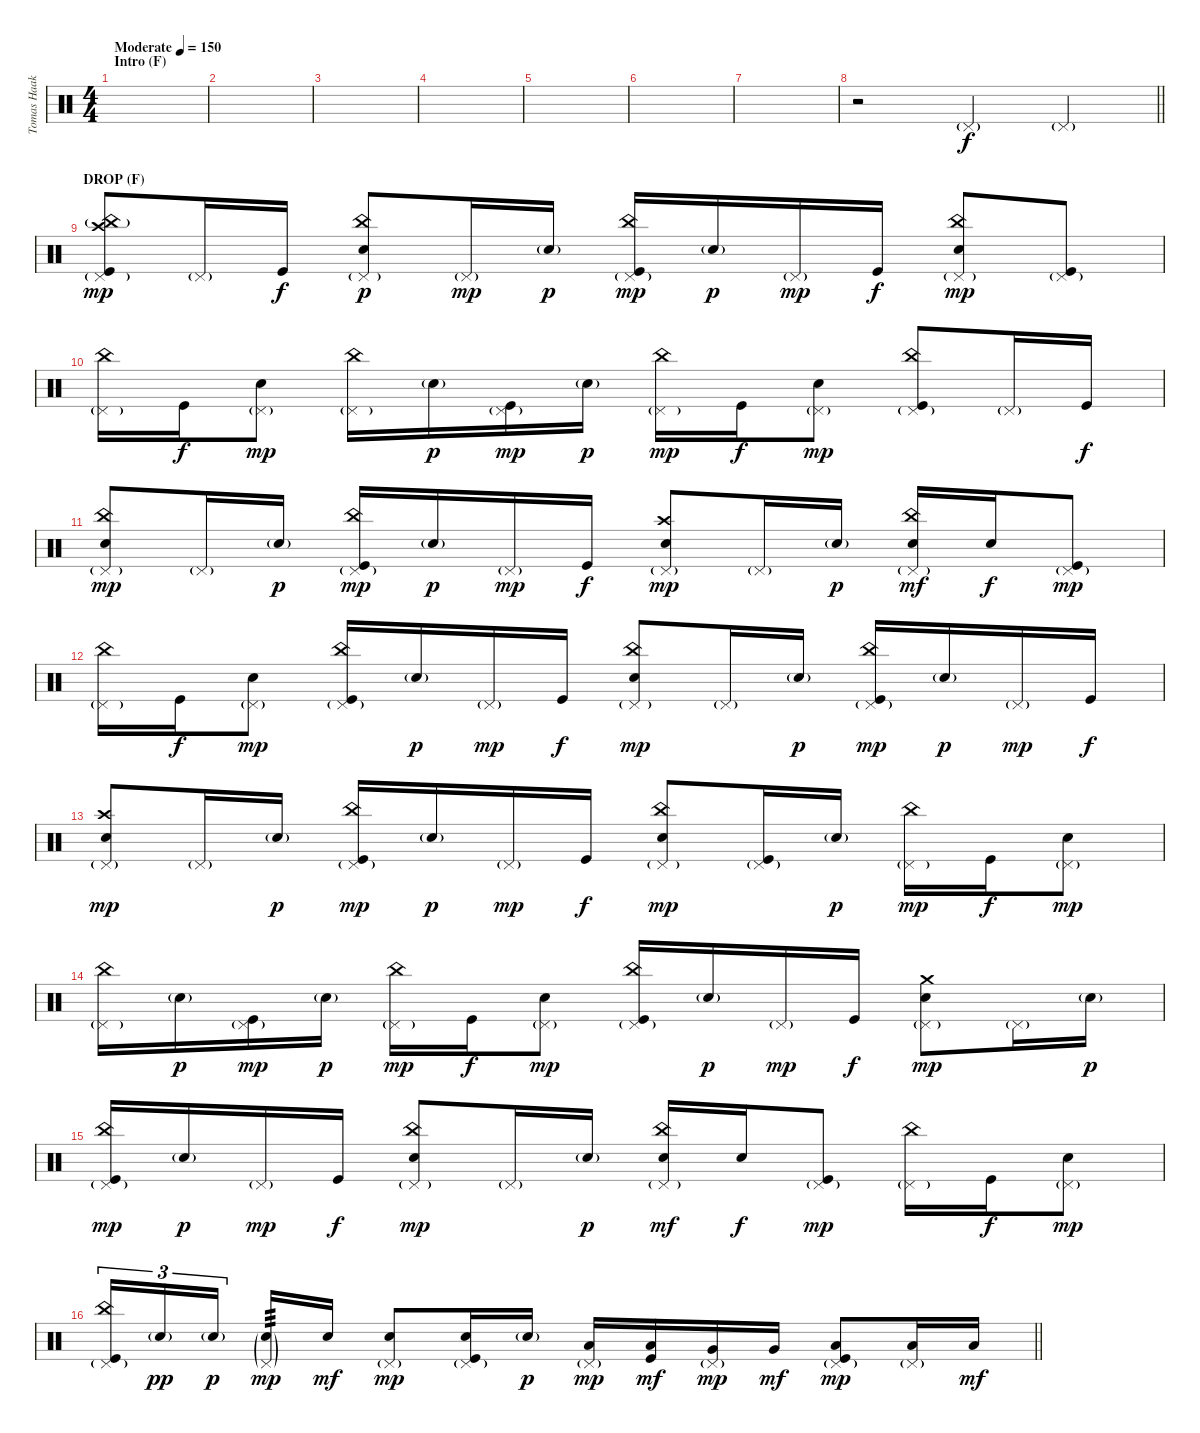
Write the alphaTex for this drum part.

\track ("Tomas Haake (Drums)" "Tomas Haak") {instrument percussion}
\staff {score}
\articulation defaults
\ts (4 4)
\section ("" "Intro (F)")
\tempo (150 "Moderate")
\clef neutral
\ks c
|
|
|
|
|
|
|
\barLineRight lightlight
r.2 "Pedal Hi-Hat (hit)"{g}.4 "Pedal Hi-Hat (hit)"{g}.4 |
\section ("" "DROP (F)")
("Crash high (hit)" "Pedal Hi-Hat (hit)"{g} "China (hit)"{g} "Kick (hit)").8{dy mp} "Pedal Hi-Hat (hit)"{g}.16 "Kick (hit)".16{dy f} ("China (hit)" "Pedal Hi-Hat (hit)"{g} "Electric Snare (hit)").8{dy p} "Pedal Hi-Hat (hit)"{g}.16{dy mp} "Electric Snare (hit)"{g}.16{dy p} ("China (hit)" "Pedal Hi-Hat (hit)"{g} "Kick (hit)").16{dy mp} "Electric Snare (hit)"{g}.16{dy p} "Pedal Hi-Hat (hit)"{g}.16{dy mp} "Kick (hit)".16{dy f} ("China (hit)" "Pedal Hi-Hat (hit)"{g} "Electric Snare (hit)").8{dy mp} ("Pedal Hi-Hat (hit)"{g} "Kick (hit)").8 |
("China (hit)" "Pedal Hi-Hat (hit)"{g}).16 "Kick (hit)".16{dy f} ("Pedal Hi-Hat (hit)"{g} "Electric Snare (hit)").8{dy mp} ("China (hit)" "Pedal Hi-Hat (hit)"{g}).16 "Electric Snare (hit)"{g}.16{dy p} ("Pedal Hi-Hat (hit)"{g} "Kick (hit)").16{dy mp} "Electric Snare (hit)"{g}.16{dy p} ("China (hit)" "Pedal Hi-Hat (hit)"{g}).16{dy mp} "Kick (hit)".16{dy f} ("Pedal Hi-Hat (hit)"{g} "Electric Snare (hit)").8{dy mp} ("China (hit)" "Pedal Hi-Hat (hit)"{g} "Kick (hit)").8 "Pedal Hi-Hat (hit)"{g}.16 "Kick (hit)".16{dy f} |
("China (hit)" "Pedal Hi-Hat (hit)"{g} "Electric Snare (hit)").8{dy mp} "Pedal Hi-Hat (hit)"{g}.16 "Electric Snare (hit)"{g}.16{dy p} ("China (hit)" "Pedal Hi-Hat (hit)"{g} "Kick (hit)").16{dy mp} "Electric Snare (hit)"{g}.16{dy p} "Pedal Hi-Hat (hit)"{g}.16{dy mp} "Kick (hit)".16{dy f} ("Crash high (hit)" "Pedal Hi-Hat (hit)"{g} "Electric Snare (hit)").8{dy mp} "Pedal Hi-Hat (hit)"{g}.16 "Electric Snare (hit)"{g}.16{dy p} ("China (hit)" "Pedal Hi-Hat (hit)"{g} "Electric Snare (hit)").16{dy mf} "Electric Snare (hit)".16{dy f} ("Pedal Hi-Hat (hit)"{g} "Kick (hit)").8{dy mp} |
("China (hit)" "Pedal Hi-Hat (hit)"{g}).16 "Kick (hit)".16{dy f} ("Pedal Hi-Hat (hit)"{g} "Electric Snare (hit)").8{dy mp} ("China (hit)" "Pedal Hi-Hat (hit)"{g} "Kick (hit)").16 "Electric Snare (hit)"{g}.16{dy p} "Pedal Hi-Hat (hit)"{g}.16{dy mp} "Kick (hit)".16{dy f} ("China (hit)" "Pedal Hi-Hat (hit)"{g} "Electric Snare (hit)").8{dy mp} "Pedal Hi-Hat (hit)"{g}.16 "Electric Snare (hit)"{g}.16{dy p} ("China (hit)" "Pedal Hi-Hat (hit)"{g} "Kick (hit)").16{dy mp} "Electric Snare (hit)"{g}.16{dy p} "Pedal Hi-Hat (hit)"{g}.16{dy mp} "Kick (hit)".16{dy f} |
("Crash high (hit)" "Pedal Hi-Hat (hit)"{g} "Electric Snare (hit)").8{dy mp} "Pedal Hi-Hat (hit)"{g}.16 "Electric Snare (hit)"{g}.16{dy p} ("China (hit)" "Pedal Hi-Hat (hit)"{g} "Kick (hit)").16{dy mp} "Electric Snare (hit)"{g}.16{dy p} "Pedal Hi-Hat (hit)"{g}.16{dy mp} "Kick (hit)".16{dy f} ("China (hit)" "Pedal Hi-Hat (hit)"{g} "Electric Snare (hit)").8{dy mp} ("Pedal Hi-Hat (hit)"{g} "Kick (hit)").16 "Electric Snare (hit)"{g}.16{dy p} ("China (hit)" "Pedal Hi-Hat (hit)"{g}).16{dy mp} "Kick (hit)".16{dy f} ("Pedal Hi-Hat (hit)"{g} "Electric Snare (hit)").8{dy mp} |
("China (hit)" "Pedal Hi-Hat (hit)"{g}).16 "Electric Snare (hit)"{g}.16{dy p} ("Pedal Hi-Hat (hit)"{g} "Kick (hit)").16{dy mp} "Electric Snare (hit)"{g}.16{dy p} ("China (hit)" "Pedal Hi-Hat (hit)"{g}).16{dy mp} "Kick (hit)".16{dy f} ("Pedal Hi-Hat (hit)"{g} "Electric Snare (hit)").8{dy mp} ("China (hit)" "Pedal Hi-Hat (hit)"{g} "Kick (hit)").16 "Electric Snare (hit)"{g}.16{dy p} "Pedal Hi-Hat (hit)"{g}.16{dy mp} "Kick (hit)".16{dy f} ("Crash medium (hit)" "Pedal Hi-Hat (hit)"{g} "Electric Snare (hit)").8{dy mp} "Pedal Hi-Hat (hit)"{g}.16 "Electric Snare (hit)"{g}.16{dy p} |
("China (hit)" "Pedal Hi-Hat (hit)"{g} "Kick (hit)").16{dy mp} "Electric Snare (hit)"{g}.16{dy p} "Pedal Hi-Hat (hit)"{g}.16{dy mp} "Kick (hit)".16{dy f} ("China (hit)" "Pedal Hi-Hat (hit)"{g} "Electric Snare (hit)").8{dy mp} "Pedal Hi-Hat (hit)"{g}.16 "Electric Snare (hit)"{g}.16{dy p} ("China (hit)" "Pedal Hi-Hat (hit)"{g} "Electric Snare (hit)").16{dy mf} "Electric Snare (hit)".16{dy f} ("Pedal Hi-Hat (hit)"{g} "Kick (hit)").8{dy mp} ("China (hit)" "Pedal Hi-Hat (hit)"{g}).16 "Kick (hit)".16{dy f} ("Pedal Hi-Hat (hit)"{g} "Electric Snare (hit)").8{dy mp} |
\barLineRight lightlight
("China (hit)" "Pedal Hi-Hat (hit)"{g} "Kick (hit)").16{tu (3 2)} "Electric Snare (hit)"{g}.16{tu (3 2) dy pp} "Electric Snare (hit)"{g}.16{tu (3 2) dy p beam splitsecondary} ("Pedal Hi-Hat (hit)"{g} "Electric Snare (hit)"{g}).16{tp 3 dy mp} "Electric Snare (hit)".16{dy mf} ("Pedal Hi-Hat (hit)"{g} "Electric Snare (hit)").8{dy mp} ("Pedal Hi-Hat (hit)"{g} "Electric Snare (hit)" "Kick (hit)").16 "Electric Snare (hit)"{g}.16{dy p} ("Pedal Hi-Hat (hit)"{g} "Low Tom (hit)").16{dy mp} ("Low Tom (hit)" "Kick (hit)").16{dy mf} ("Pedal Hi-Hat (hit)"{g} "Very Low Tom (hit)").16{dy mp} "Very Low Tom (hit)".16{dy mf} ("Pedal Hi-Hat (hit)"{g} "Low Floor Tom (hit)" "Kick (hit)").8{dy mp} ("Pedal Hi-Hat (hit)"{g} "Low Floor Tom (hit)").16 "Low Floor Tom (hit)".16{dy mf}
